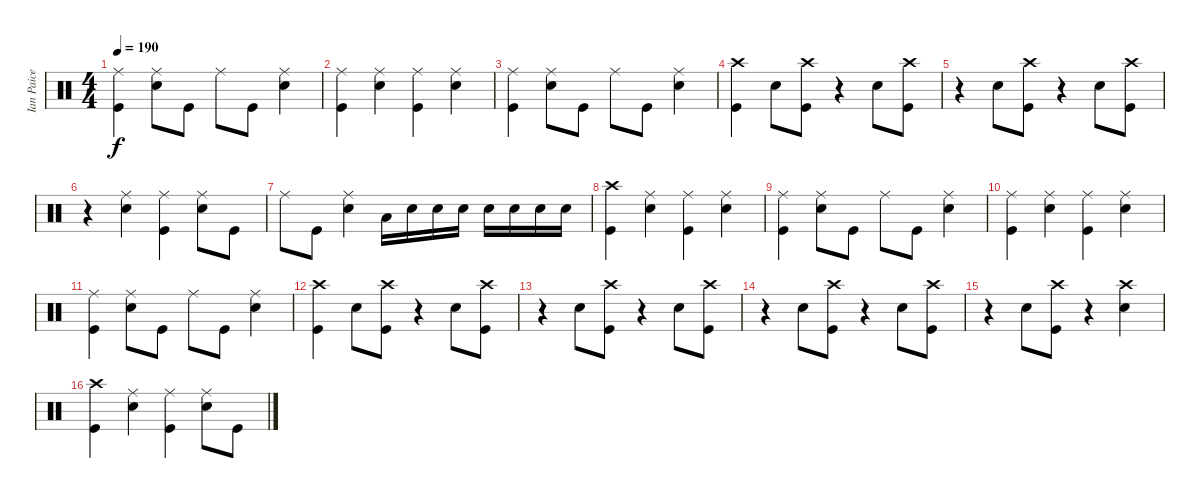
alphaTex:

\track ("Ian Paice" "Ian Paice") {instrument percussion}
\staff {score}
\articulation defaults
\ts (4 4)
\tempo 190
\clef neutral
\ks c
("Ride (middle)" "Kick (hit)").4{dy f} ("Snare (hit) 2" "Ride (middle)").8 "Kick (hit)".8 "Ride (middle)".8 "Kick (hit)".8 ("Ride (middle)" "Snare (hit) 2").4 |
("Kick (hit)" "Ride (middle)").4 ("Ride (middle)" "Snare (hit) 2").4 ("Ride (middle)" "Kick (hit)").4 ("Ride (middle)" "Snare (hit) 2").4 |
("Ride (middle)" "Kick (hit)").4 ("Ride (middle)" "Snare (hit) 2").8 "Kick (hit)".8 "Ride (middle)".8 "Kick (hit)".8 ("Ride (middle)" "Snare (hit) 2").4 |
("Crash high (hit)" "Kick (hit)").4 "Snare (hit) 2".8 ("Kick (hit)" "Crash high (hit)").8 r.4 "Snare (hit) 2".8 ("Crash high (hit)" "Kick (hit)").8 |
r.4 "Snare (hit) 2".8 ("Kick (hit)" "Crash high (hit)").8 r.4 "Snare (hit) 2".8 ("Kick (hit)" "Crash high (hit)").8 |
r.4 ("Ride (middle)" "Snare (hit) 2").4 ("Ride (middle)" "Kick (hit)").4 ("Snare (hit) 2" "Ride (middle)").8 "Kick (hit)".8 |
"Ride (middle)".8 "Kick (hit)".8 ("Ride (middle)" "Snare (hit) 2").4 "Low Tom (hit)".16 "Snare (hit) 2".16 "Snare (hit) 2".16 "Snare (hit) 2".16 "Snare (hit) 2".16 "Snare (hit) 2".16 "Snare (hit) 2".16 "Snare (hit) 2".16 |
("Kick (hit)" "Crash high (hit)").4 ("Snare (hit) 2" "Ride (middle)").4 ("Kick (hit)" "Ride (middle)").4 ("Snare (hit) 2" "Ride (middle)").4 |
("Kick (hit)" "Ride (middle)").4 ("Snare (hit) 2" "Ride (middle)").8 "Kick (hit)".8 "Ride (middle)".8 "Kick (hit)".8 ("Snare (hit) 2" "Ride (middle)").4 |
("Ride (middle)" "Kick (hit)").4 ("Snare (hit) 2" "Ride (middle)").4 ("Kick (hit)" "Ride (middle)").4 ("Ride (middle)" "Snare (hit) 2").4 |
("Ride (middle)" "Kick (hit)").4 ("Snare (hit) 2" "Ride (middle)").8 "Kick (hit)".8 "Ride (middle)".8 "Kick (hit)".8 ("Ride (middle)" "Snare (hit) 2").4 |
("Kick (hit)" "Crash high (hit)").4 "Snare (hit) 2".8 ("Kick (hit)" "Crash high (hit)").8 r.4 "Snare (hit) 2".8 ("Kick (hit)" "Crash high (hit)").8 |
r.4 "Snare (hit) 2".8 ("Crash high (hit)" "Kick (hit)").8 r.4 "Snare (hit) 2".8 ("Kick (hit)" "Crash high (hit)").8 |
r.4 "Snare (hit) 2".8 ("Crash high (hit)" "Kick (hit)").8 r.4 "Snare (hit) 2".8 ("Kick (hit)" "Crash high (hit)").8 |
r.4 "Snare (hit) 2".8 ("Kick (hit)" "Crash high (hit)").8 r.4 ("Snare (hit) 2" "Crash high (hit)").4 |
("Kick (hit)" "Crash high (hit)").4 ("Ride (middle)" "Snare (hit) 2").4 ("Ride (middle)" "Kick (hit)").4 ("Ride (middle)" "Snare (hit) 2").8 "Kick (hit)".8
